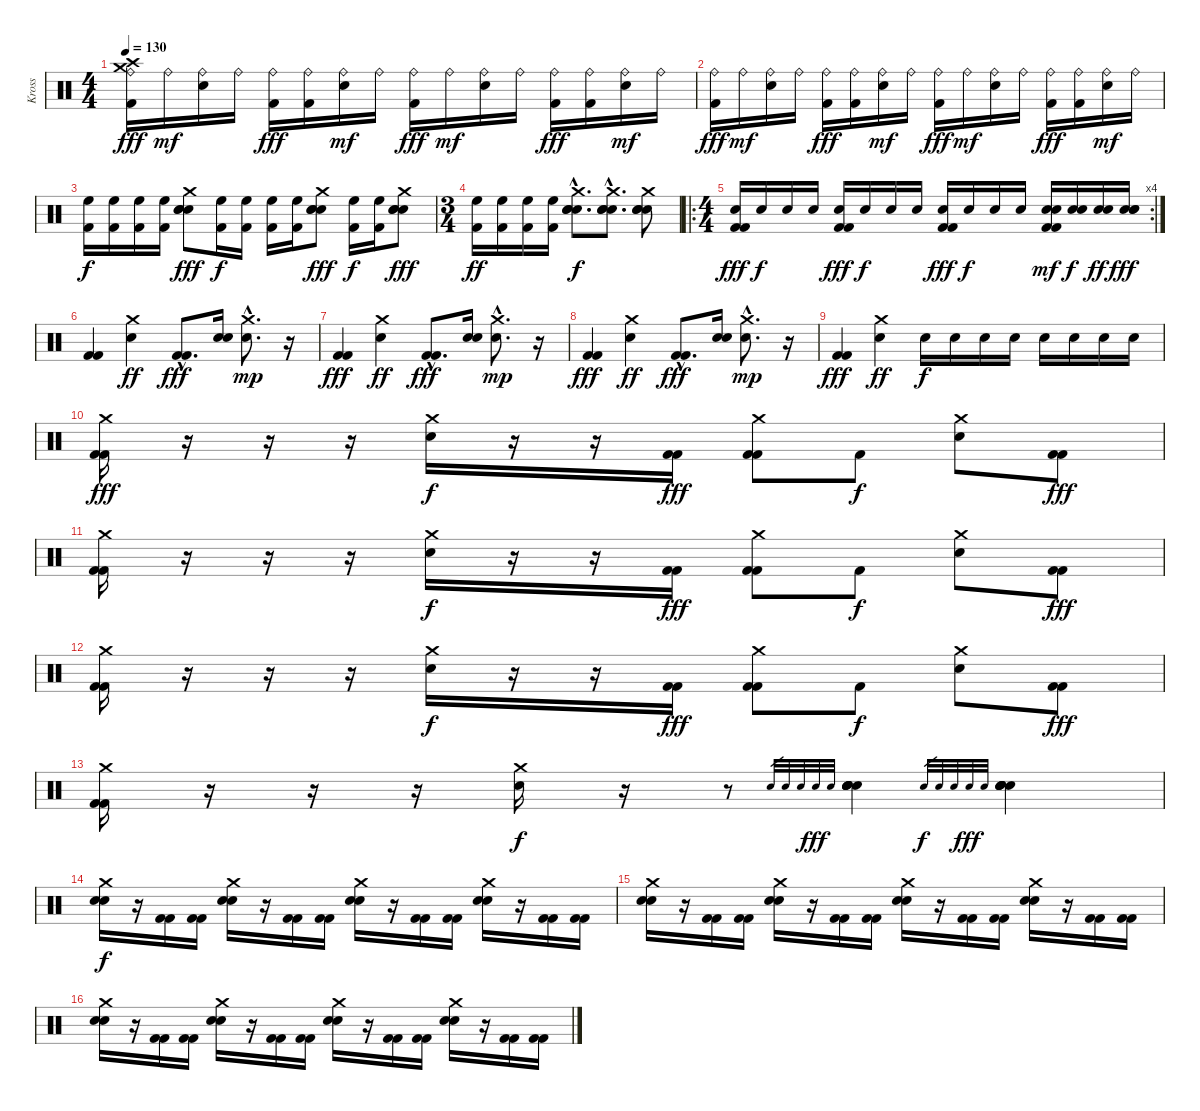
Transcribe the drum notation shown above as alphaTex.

\track ("Kross" "Kross") {instrument percussion}
\staff {score}
\articulation defaults
\ts (4 4)
\tempo 130
\clef neutral
\ks c
("Crash high (hit)" "Crash medium (hit)" "Ride (bell)" "Kick (hit) 2").16{dy fff} "Ride (bell)".16{dy mf} ("Ride (bell)" "Snare (hit) 2").16 "Ride (bell)".16 ("Ride (bell)" "Kick (hit) 2").16{dy fff} ("Ride (bell)" "Kick (hit) 2").16 ("Ride (bell)" "Snare (hit) 2").16{dy mf} "Ride (bell)".16 ("Ride (bell)" "Kick (hit) 2").16{dy fff} "Ride (bell)".16{dy mf} ("Ride (bell)" "Snare (hit) 2").16 "Ride (bell)".16 ("Ride (bell)" "Kick (hit) 2").16{dy fff} ("Ride (bell)" "Kick (hit) 2").16 ("Ride (bell)" "Snare (hit) 2").16{dy mf} "Ride (bell)".16 |
("Ride (bell)" "Kick (hit) 2").16{dy fff} "Ride (bell)".16{dy mf} ("Ride (bell)" "Snare (hit) 2").16 "Ride (bell)".16 ("Ride (bell)" "Kick (hit) 2").16{dy fff} ("Ride (bell)" "Kick (hit) 2").16 ("Ride (bell)" "Snare (hit) 2").16{dy mf} "Ride (bell)".16 ("Ride (bell)" "Kick (hit) 2").16{dy fff} "Ride (bell)".16{dy mf} ("Ride (bell)" "Snare (hit) 2").16 "Ride (bell)".16 ("Ride (bell)" "Kick (hit) 2").16{dy fff} ("Ride (bell)" "Kick (hit) 2").16 ("Ride (bell)" "Snare (hit) 2").16{dy mf} "Ride (bell)".16 |
("High Floor Tom (hit)" "Kick (hit) 2").16{dy f} ("High Floor Tom (hit)" "Kick (hit) 2").16 ("High Floor Tom (hit)" "Kick (hit) 2").16 ("High Floor Tom (hit)" "Kick (hit) 2").16 ("Crash medium (hit)" "Snare (hit) 2" "Snare (hit) 2" "Snare (hit) 2").8{dy fff} ("High Floor Tom (hit)" "Kick (hit) 2").16{dy f} ("High Floor Tom (hit)" "Kick (hit) 2").16 ("High Floor Tom (hit)" "Kick (hit) 2").16 ("High Floor Tom (hit)" "Kick (hit) 2").16 ("Crash medium (hit)" "Snare (hit) 2" "Snare (hit) 2" "Snare (hit) 2").8{dy fff} ("High Floor Tom (hit)" "Kick (hit) 2").16{dy f} ("High Floor Tom (hit)" "Kick (hit) 2").16 ("Crash medium (hit)" "Snare (hit) 2" "Snare (hit) 2" "Snare (hit) 2").8{dy fff} |
\ts (3 4)
("High Floor Tom (hit)" "Kick (hit) 2").16{dy ff} ("High Floor Tom (hit)" "Kick (hit) 2").16 ("High Floor Tom (hit)" "Kick (hit) 2").16 ("High Floor Tom (hit)" "Kick (hit) 2").16 ("Crash medium (hit)"{hac} "Snare (hit) 2"{hac} "Snare (hit) 2"{hac} "Snare (hit) 2"{hac}).8{d dy f} ("Crash medium (hit)"{hac} "Snare (hit) 2"{hac} "Snare (hit) 2"{hac} "Snare (hit) 2"{hac}).8{d} ("Crash medium (hit)" "Snare (hit) 2" "Snare (hit) 2" "Snare (hit) 2").8 |
\ro
\rc 4
\ts (4 4)
("Kick (hit) 2" "Kick (hit) 2" "Snare (hit) 2").16{dy fff} "Snare (hit) 2".16{dy f} "Snare (hit) 2".16 "Snare (hit) 2".16 ("Kick (hit) 2" "Kick (hit) 2" "Snare (hit) 2").16{dy fff} "Snare (hit) 2".16{dy f} "Snare (hit) 2".16 "Snare (hit) 2".16 ("Kick (hit) 2" "Kick (hit) 2" "Snare (hit) 2").16{dy fff} "Snare (hit) 2".16{dy f} "Snare (hit) 2".16 "Snare (hit) 2".16 ("Kick (hit) 2" "Kick (hit) 2" "Snare (hit) 2" "Snare (hit) 2").16{dy mf} ("Snare (hit) 2" "Snare (hit) 2").16{dy f} ("Snare (hit) 2" "Snare (hit) 2").16{dy ff} ("Snare (hit) 2" "Snare (hit) 2" "Snare (hit) 2").16{dy fff} |
("Kick (hit) 2" "Kick (hit) 2").4 ("Crash medium (hit)" "Snare (hit) 2").4{dy ff} ("Kick (hit) 2"{hac} "Kick (hit) 2"{hac}).8{d dy fff} ("Snare (hit) 2" "Snare (hit) 2").16 ("Crash medium (hit)"{hac} "Snare (hit) 2"{hac}).8{d dy mp} r.16 |
("Kick (hit) 2" "Kick (hit) 2").4{dy fff} ("Crash medium (hit)" "Snare (hit) 2").4{dy ff} ("Kick (hit) 2"{hac} "Kick (hit) 2"{hac}).8{d dy fff} ("Snare (hit) 2" "Snare (hit) 2").16 ("Crash medium (hit)"{hac} "Snare (hit) 2"{hac}).8{d dy mp} r.16 |
("Kick (hit) 2" "Kick (hit) 2").4{dy fff} ("Crash medium (hit)" "Snare (hit) 2").4{dy ff} ("Kick (hit) 2"{hac} "Kick (hit) 2"{hac}).8{d dy fff} ("Snare (hit) 2" "Snare (hit) 2").16 ("Crash medium (hit)"{hac} "Snare (hit) 2"{hac}).8{d dy mp} r.16 |
("Kick (hit) 2" "Kick (hit) 2").4{dy fff} ("Crash medium (hit)" "Snare (hit) 2").4{dy ff} "Snare (hit) 2".16{dy f} "Snare (hit) 2".16 "Snare (hit) 2".16 "Snare (hit) 2".16 "Snare (hit) 2".16 "Snare (hit) 2".16 "Snare (hit) 2".16 "Snare (hit) 2".16 |
("Crash medium (hit)" "Kick (hit) 2" "Kick (hit) 2").16{dy fff} r.16 r.16 r.16 ("Crash medium (hit)" "Snare (hit) 2").16{dy f} r.16 r.16 ("Kick (hit) 2" "Kick (hit) 2").16{dy fff} ("Crash medium (hit)" "Kick (hit) 2" "Kick (hit) 2").8 "Kick (hit) 2".8{dy f} ("Crash medium (hit)" "Snare (hit) 2").8 ("Kick (hit) 2" "Kick (hit) 2").8{dy fff} |
("Crash medium (hit)" "Kick (hit) 2" "Kick (hit) 2").16 r.16 r.16 r.16 ("Crash medium (hit)" "Snare (hit) 2").16{dy f} r.16 r.16 ("Kick (hit) 2" "Kick (hit) 2").16{dy fff} ("Crash medium (hit)" "Kick (hit) 2" "Kick (hit) 2").8 "Kick (hit) 2".8{dy f} ("Crash medium (hit)" "Snare (hit) 2").8 ("Kick (hit) 2" "Kick (hit) 2").8{dy fff} |
("Crash medium (hit)" "Kick (hit) 2" "Kick (hit) 2").16 r.16 r.16 r.16 ("Crash medium (hit)" "Snare (hit) 2").16{dy f} r.16 r.16 ("Kick (hit) 2" "Kick (hit) 2").16{dy fff} ("Crash medium (hit)" "Kick (hit) 2" "Kick (hit) 2").8 "Kick (hit) 2".8{dy f} ("Crash medium (hit)" "Snare (hit) 2").8 ("Kick (hit) 2" "Kick (hit) 2").8{dy fff} |
("Crash medium (hit)" "Kick (hit) 2" "Kick (hit) 2").16 r.16 r.16 r.16 ("Crash medium (hit)" "Snare (hit) 2").16{dy f} r.16 r.8 "Snare (hit) 2".32{gr} "Snare (hit) 2".32{gr} "Snare (hit) 2".32{gr} "Snare (hit) 2".32{gr dy fff} "Snare (hit) 2".32{gr} ("Snare (hit) 2" "Snare (hit) 2" "Snare (hit) 2" "Snare (hit) 2" "Snare (hit) 2").4 "Snare (hit) 2".32{gr dy f} "Snare (hit) 2".32{gr} "Snare (hit) 2".32{gr} "Snare (hit) 2".32{gr dy fff} "Snare (hit) 2".32{gr} ("Snare (hit) 2" "Snare (hit) 2" "Snare (hit) 2" "Snare (hit) 2" "Snare (hit) 2").4 |
("Crash medium (hit)" "Snare (hit) 2" "Snare (hit) 2").16{dy f} r.16 ("Kick (hit) 2" "Kick (hit) 2").16 ("Kick (hit) 2" "Kick (hit) 2").16 ("Crash medium (hit)" "Snare (hit) 2" "Snare (hit) 2").16 r.16 ("Kick (hit) 2" "Kick (hit) 2").16 ("Kick (hit) 2" "Kick (hit) 2").16 ("Crash medium (hit)" "Snare (hit) 2" "Snare (hit) 2").16 r.16 ("Kick (hit) 2" "Kick (hit) 2").16 ("Kick (hit) 2" "Kick (hit) 2").16 ("Crash medium (hit)" "Snare (hit) 2" "Snare (hit) 2").16 r.16 ("Kick (hit) 2" "Kick (hit) 2").16 ("Kick (hit) 2" "Kick (hit) 2").16 |
("Crash medium (hit)" "Snare (hit) 2" "Snare (hit) 2").16 r.16 ("Kick (hit) 2" "Kick (hit) 2").16 ("Kick (hit) 2" "Kick (hit) 2").16 ("Crash medium (hit)" "Snare (hit) 2" "Snare (hit) 2").16 r.16 ("Kick (hit) 2" "Kick (hit) 2").16 ("Kick (hit) 2" "Kick (hit) 2").16 ("Crash medium (hit)" "Snare (hit) 2" "Snare (hit) 2").16 r.16 ("Kick (hit) 2" "Kick (hit) 2").16 ("Kick (hit) 2" "Kick (hit) 2").16 ("Crash medium (hit)" "Snare (hit) 2" "Snare (hit) 2").16 r.16 ("Kick (hit) 2" "Kick (hit) 2").16 ("Kick (hit) 2" "Kick (hit) 2").16 |
("Crash medium (hit)" "Snare (hit) 2" "Snare (hit) 2").16 r.16 ("Kick (hit) 2" "Kick (hit) 2").16 ("Kick (hit) 2" "Kick (hit) 2").16 ("Crash medium (hit)" "Snare (hit) 2" "Snare (hit) 2").16 r.16 ("Kick (hit) 2" "Kick (hit) 2").16 ("Kick (hit) 2" "Kick (hit) 2").16 ("Crash medium (hit)" "Snare (hit) 2" "Snare (hit) 2").16 r.16 ("Kick (hit) 2" "Kick (hit) 2").16 ("Kick (hit) 2" "Kick (hit) 2").16 ("Crash medium (hit)" "Snare (hit) 2" "Snare (hit) 2").16 r.16 ("Kick (hit) 2" "Kick (hit) 2").16 ("Kick (hit) 2" "Kick (hit) 2").16
